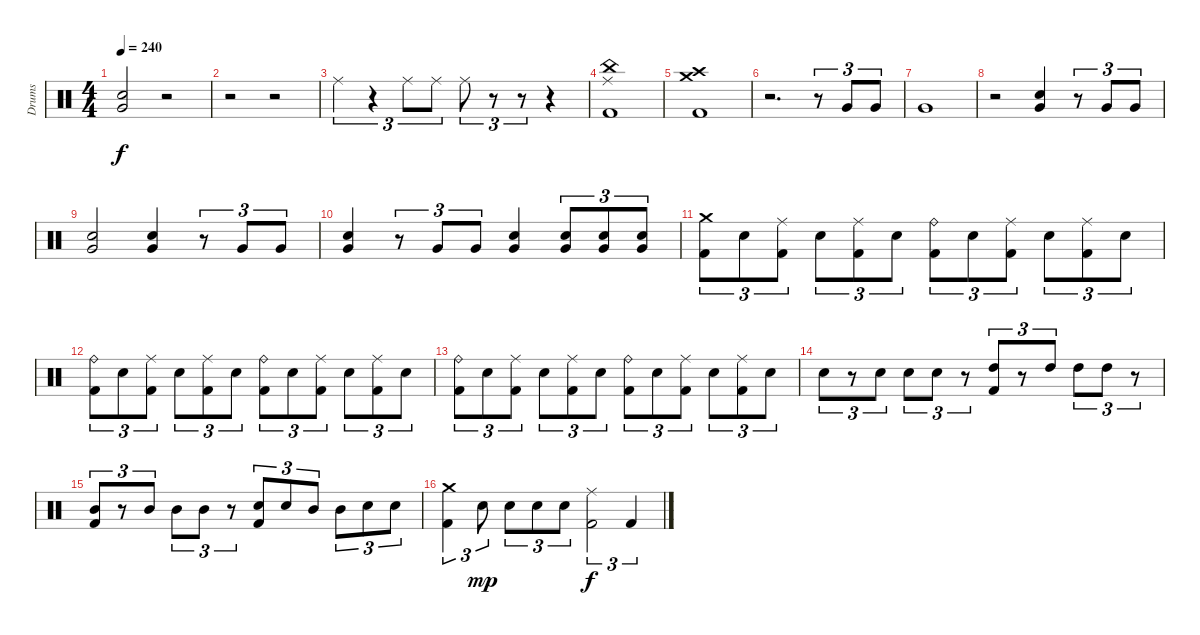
\track ("Drums" "Drums") {instrument percussion}
\staff {score}
\articulation defaults
\ts (4 4)
\tempo 240
\clef neutral
\ks c
("Electric Snare (hit)" "Very Low Tom (hit)").2{bu 480 dy f} r.2 |
r.2 r.2 |
"Ride (middle)".4{tu (3 2)} r.4{tu (3 2)} "Ride (middle)".8{tu (3 2)} "Ride (middle)".8{tu (3 2)} "Ride (middle)".8{tu (3 2)} r.8{tu (3 2)} r.8{tu (3 2)} r.4 |
("China (hit)" "Ride (middle)" "Kick (hit) 2").1 |
("Crash medium (hit)" "Crash high (hit)" "Kick (hit) 2").1 |
r.2{d} r.8{tu (3 2)} "Very Low Tom (hit)".8{tu (3 2)} "Very Low Tom (hit)".8{tu (3 2)} |
"Very Low Tom (hit)".1 |
r.2 ("Electric Snare (hit)" "Very Low Tom (hit)").4{bu 480} r.8{tu (3 2)} "Very Low Tom (hit)".8{tu (3 2)} "Very Low Tom (hit)".8{tu (3 2)} |
("Electric Snare (hit)" "Very Low Tom (hit)").2{bu 480} ("Electric Snare (hit)" "Very Low Tom (hit)").4{bu 480} r.8{tu (3 2)} "Very Low Tom (hit)".8{tu (3 2)} "Very Low Tom (hit)".8{tu (3 2)} |
("Electric Snare (hit)" "Very Low Tom (hit)").4{bu 480} r.8{tu (3 2)} "Very Low Tom (hit)".8{tu (3 2)} "Very Low Tom (hit)".8{tu (3 2)} ("Electric Snare (hit)" "Very Low Tom (hit)").4 ("Electric Snare (hit)" "Very Low Tom (hit)").8{tu (3 2)} ("Electric Snare (hit)" "Very Low Tom (hit)").8{tu (3 2)} ("Electric Snare (hit)" "Very Low Tom (hit)").8{tu (3 2)} |
("Crash medium (hit)" "Kick (hit) 2").8{tu (3 2)} "Electric Snare (hit)".8{tu (3 2)} ("Ride (middle)" "Kick (hit) 2").8{tu (3 2)} "Electric Snare (hit)".8{tu (3 2)} ("Ride (middle)" "Kick (hit) 2").8{tu (3 2)} "Electric Snare (hit)".8{tu (3 2)} ("Ride (bell)" "Kick (hit) 2").8{tu (3 2)} "Electric Snare (hit)".8{tu (3 2)} ("Ride (middle)" "Kick (hit) 2").8{tu (3 2)} "Electric Snare (hit)".8{tu (3 2)} ("Ride (middle)" "Kick (hit) 2").8{tu (3 2)} "Electric Snare (hit)".8{tu (3 2)} |
("Ride (bell)" "Kick (hit) 2").8{tu (3 2)} "Electric Snare (hit)".8{tu (3 2)} ("Ride (middle)" "Kick (hit) 2").8{tu (3 2)} "Electric Snare (hit)".8{tu (3 2)} ("Ride (middle)" "Kick (hit) 2").8{tu (3 2)} "Electric Snare (hit)".8{tu (3 2)} ("Ride (bell)" "Kick (hit) 2").8{tu (3 2)} "Electric Snare (hit)".8{tu (3 2)} ("Ride (middle)" "Kick (hit) 2").8{tu (3 2)} "Electric Snare (hit)".8{tu (3 2)} ("Ride (middle)" "Kick (hit) 2").8{tu (3 2)} "Electric Snare (hit)".8{tu (3 2)} |
("Ride (bell)" "Kick (hit) 2").8{tu (3 2)} "Electric Snare (hit)".8{tu (3 2)} ("Ride (middle)" "Kick (hit) 2").8{tu (3 2)} "Electric Snare (hit)".8{tu (3 2)} ("Ride (middle)" "Kick (hit) 2").8{tu (3 2)} "Electric Snare (hit)".8{tu (3 2)} ("Ride (bell)" "Kick (hit) 2").8{tu (3 2)} "Electric Snare (hit)".8{tu (3 2)} ("Ride (middle)" "Kick (hit) 2").8{tu (3 2)} "Electric Snare (hit)".8{tu (3 2)} ("Ride (middle)" "Kick (hit) 2").8{tu (3 2)} "Electric Snare (hit)".8{tu (3 2)} |
"Electric Snare (hit)".8{tu (3 2)} r.8{tu (3 2)} "Electric Snare (hit)".8{tu (3 2)} "Electric Snare (hit)".8{tu (3 2)} "Electric Snare (hit)".8{tu (3 2)} r.8{tu (3 2)} ("High Tom (hit)" "Kick (hit) 2").8{tu (3 2)} r.8{tu (3 2)} "High Tom (hit)".8{tu (3 2)} "High Tom (hit)".8{tu (3 2)} "High Tom (hit)".8{tu (3 2)} r.8{tu (3 2)} |
("Mid Tom (hit)" "Kick (hit) 2").8{tu (3 2)} r.8{tu (3 2)} "Mid Tom (hit)".8{tu (3 2)} "Mid Tom (hit)".8{tu (3 2)} "Mid Tom (hit)".8{tu (3 2)} r.8{tu (3 2)} ("Electric Snare (hit)" "Kick (hit) 2").8{tu (3 2)} "Electric Snare (hit)".8{tu (3 2)} "Mid Tom (hit)".8{tu (3 2)} "Mid Tom (hit)".8{tu (3 2)} "Electric Snare (hit)".8{tu (3 2)} "Electric Snare (hit)".8{tu (3 2)} |
("Crash medium (hit)" "Kick (hit) 2").4{tu (3 2)} "Electric Snare (hit)".8{tu (3 2) dy mp} "Electric Snare (hit)".8{tu (3 2)} "Electric Snare (hit)".8{tu (3 2)} "Electric Snare (hit)".8{tu (3 2)} ("Ride (middle)" "Kick (hit) 2").2{tu (3 2) dy f} "Kick (hit) 2".4{tu (3 2)}
